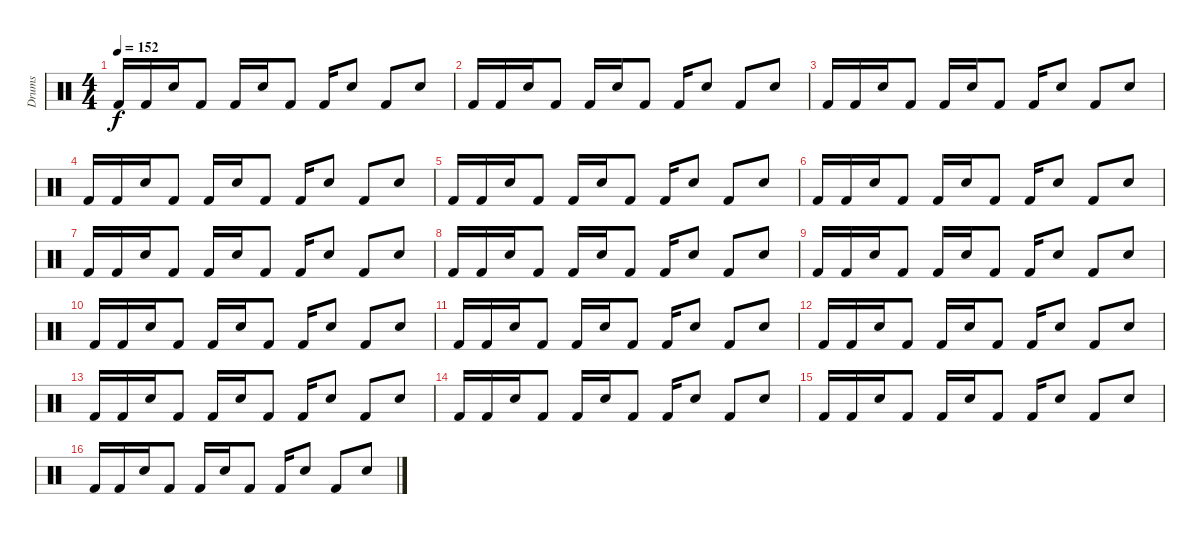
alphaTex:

\track ("Drums" "Drums") {instrument percussion}
\staff {score}
\articulation defaults
\ts (4 4)
\tempo 152
\clef neutral
\ks c "Kick (hit) 2".16{dy f} "Kick (hit) 2".16 "Electric Snare (hit)".16 "Kick (hit) 2".8 "Kick (hit) 2".16 "Electric Snare (hit)".16 "Kick (hit) 2".8 "Kick (hit) 2".16 "Electric Snare (hit)".8 "Kick (hit) 2".8 "Electric Snare (hit)".8
|
"Kick (hit) 2".16 "Kick (hit) 2".16 "Electric Snare (hit)".16 "Kick (hit) 2".8 "Kick (hit) 2".16 "Electric Snare (hit)".16 "Kick (hit) 2".8 "Kick (hit) 2".16 "Electric Snare (hit)".8 "Kick (hit) 2".8 "Electric Snare (hit)".8 |
"Kick (hit) 2".16 "Kick (hit) 2".16 "Electric Snare (hit)".16 "Kick (hit) 2".8 "Kick (hit) 2".16 "Electric Snare (hit)".16 "Kick (hit) 2".8 "Kick (hit) 2".16 "Electric Snare (hit)".8 "Kick (hit) 2".8 "Electric Snare (hit)".8 |
"Kick (hit) 2".16 "Kick (hit) 2".16 "Electric Snare (hit)".16 "Kick (hit) 2".8 "Kick (hit) 2".16 "Electric Snare (hit)".16 "Kick (hit) 2".8 "Kick (hit) 2".16 "Electric Snare (hit)".8 "Kick (hit) 2".8 "Electric Snare (hit)".8 |
"Kick (hit) 2".16 "Kick (hit) 2".16 "Electric Snare (hit)".16 "Kick (hit) 2".8 "Kick (hit) 2".16 "Electric Snare (hit)".16 "Kick (hit) 2".8 "Kick (hit) 2".16 "Electric Snare (hit)".8 "Kick (hit) 2".8 "Electric Snare (hit)".8 |
"Kick (hit) 2".16 "Kick (hit) 2".16 "Electric Snare (hit)".16 "Kick (hit) 2".8 "Kick (hit) 2".16 "Electric Snare (hit)".16 "Kick (hit) 2".8 "Kick (hit) 2".16 "Electric Snare (hit)".8 "Kick (hit) 2".8 "Electric Snare (hit)".8 |
"Kick (hit) 2".16 "Kick (hit) 2".16 "Electric Snare (hit)".16 "Kick (hit) 2".8 "Kick (hit) 2".16 "Electric Snare (hit)".16 "Kick (hit) 2".8 "Kick (hit) 2".16 "Electric Snare (hit)".8 "Kick (hit) 2".8 "Electric Snare (hit)".8 |
"Kick (hit) 2".16 "Kick (hit) 2".16 "Electric Snare (hit)".16 "Kick (hit) 2".8 "Kick (hit) 2".16 "Electric Snare (hit)".16 "Kick (hit) 2".8 "Kick (hit) 2".16 "Electric Snare (hit)".8 "Kick (hit) 2".8 "Electric Snare (hit)".8 |
"Kick (hit) 2".16 "Kick (hit) 2".16 "Electric Snare (hit)".16 "Kick (hit) 2".8 "Kick (hit) 2".16 "Electric Snare (hit)".16 "Kick (hit) 2".8 "Kick (hit) 2".16 "Electric Snare (hit)".8 "Kick (hit) 2".8 "Electric Snare (hit)".8 |
"Kick (hit) 2".16 "Kick (hit) 2".16 "Electric Snare (hit)".16 "Kick (hit) 2".8 "Kick (hit) 2".16 "Electric Snare (hit)".16 "Kick (hit) 2".8 "Kick (hit) 2".16 "Electric Snare (hit)".8 "Kick (hit) 2".8 "Electric Snare (hit)".8 |
"Kick (hit) 2".16 "Kick (hit) 2".16 "Electric Snare (hit)".16 "Kick (hit) 2".8 "Kick (hit) 2".16 "Electric Snare (hit)".16 "Kick (hit) 2".8 "Kick (hit) 2".16 "Electric Snare (hit)".8 "Kick (hit) 2".8 "Electric Snare (hit)".8 |
"Kick (hit) 2".16 "Kick (hit) 2".16 "Electric Snare (hit)".16 "Kick (hit) 2".8 "Kick (hit) 2".16 "Electric Snare (hit)".16 "Kick (hit) 2".8 "Kick (hit) 2".16 "Electric Snare (hit)".8 "Kick (hit) 2".8 "Electric Snare (hit)".8 |
"Kick (hit) 2".16 "Kick (hit) 2".16 "Electric Snare (hit)".16 "Kick (hit) 2".8 "Kick (hit) 2".16 "Electric Snare (hit)".16 "Kick (hit) 2".8 "Kick (hit) 2".16 "Electric Snare (hit)".8 "Kick (hit) 2".8 "Electric Snare (hit)".8 |
"Kick (hit) 2".16 "Kick (hit) 2".16 "Electric Snare (hit)".16 "Kick (hit) 2".8 "Kick (hit) 2".16 "Electric Snare (hit)".16 "Kick (hit) 2".8 "Kick (hit) 2".16 "Electric Snare (hit)".8 "Kick (hit) 2".8 "Electric Snare (hit)".8 |
"Kick (hit) 2".16 "Kick (hit) 2".16 "Electric Snare (hit)".16 "Kick (hit) 2".8 "Kick (hit) 2".16 "Electric Snare (hit)".16 "Kick (hit) 2".8 "Kick (hit) 2".16 "Electric Snare (hit)".8 "Kick (hit) 2".8 "Electric Snare (hit)".8 |
"Kick (hit) 2".16 "Kick (hit) 2".16 "Electric Snare (hit)".16 "Kick (hit) 2".8 "Kick (hit) 2".16 "Electric Snare (hit)".16 "Kick (hit) 2".8 "Kick (hit) 2".16 "Electric Snare (hit)".8 "Kick (hit) 2".8 "Electric Snare (hit)".8
